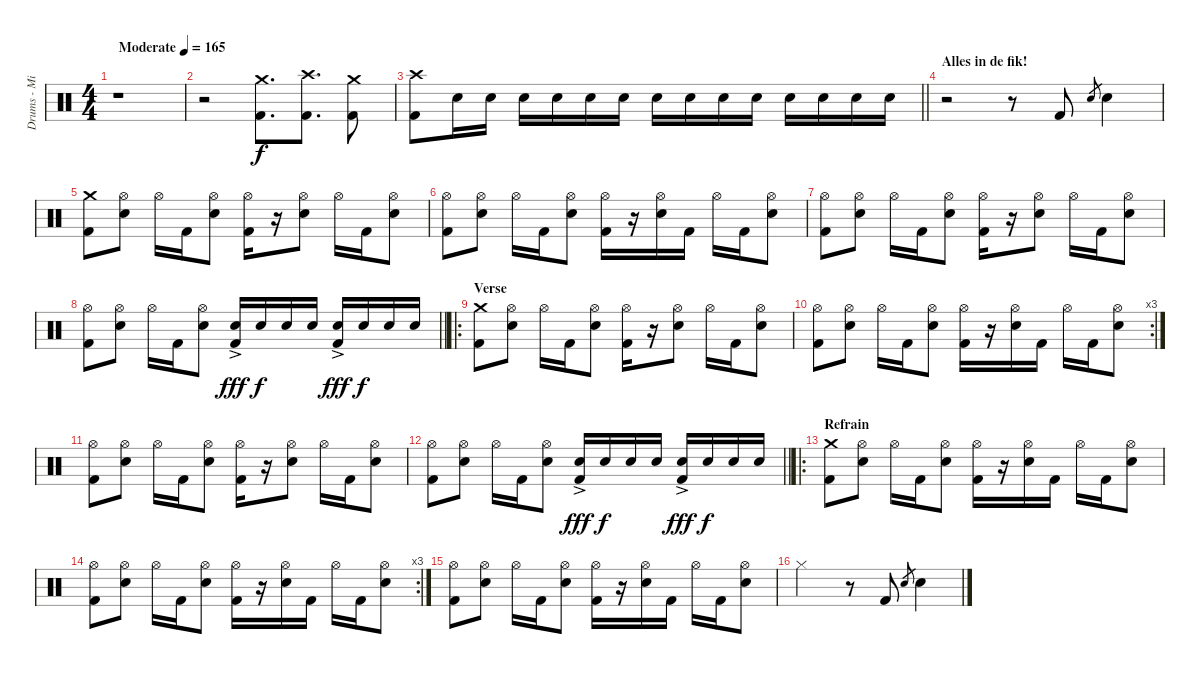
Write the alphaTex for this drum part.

\track ("Drums - Ming" "Drums - Mi") {instrument percussion}
\staff {score}
\articulation defaults
\ts (4 4)
\tempo (165 "Moderate")
\clef neutral
\ks c
r.1{dy f} |
r.2 ("Crash medium (hit)" "Kick (hit) 2").8{d} ("Crash high (hit)" "Kick (hit) 2").8{d} ("Crash medium (hit)" "Kick (hit) 2").8 |
\barLineRight lightlight
("Crash high (hit)" "Kick (hit) 2").8 "Electric Snare (hit)".16 "Electric Snare (hit)".16 "Electric Snare (hit)".16 "Electric Snare (hit)".16 "Electric Snare (hit)".16 "Electric Snare (hit)".16 "Electric Snare (hit)".16 "Electric Snare (hit)".16 "Electric Snare (hit)".16 "Electric Snare (hit)".16 "Electric Snare (hit)".16 "Electric Snare (hit)".16 "Electric Snare (hit)".16 "Electric Snare (hit)".16 |
\section ("" "Alles in de fik!")
r.2 r.8 "Kick (hit) 2".8 "Electric Snare (hit)"{h}.8{gr} "Electric Snare (hit)".4 |
("Crash medium (hit)" "Kick (hit) 2").8 ("Hi-Hat (open)" "Electric Snare (hit)").8 "Hi-Hat (open)".16 "Kick (hit) 2".16 ("Hi-Hat (open)" "Electric Snare (hit)").8 ("Hi-Hat (open)" "Kick (hit) 2").16 r.16 ("Hi-Hat (open)" "Electric Snare (hit)").8 "Hi-Hat (open)".16 "Kick (hit) 2".16 ("Hi-Hat (open)" "Electric Snare (hit)").8 |
("Hi-Hat (open)" "Kick (hit) 2").8 ("Hi-Hat (open)" "Electric Snare (hit)").8 "Hi-Hat (open)".16 "Kick (hit) 2".16 ("Hi-Hat (open)" "Electric Snare (hit)").8 ("Hi-Hat (open)" "Kick (hit) 2").16 r.16 ("Hi-Hat (open)" "Electric Snare (hit)").16 "Kick (hit) 2".16 "Hi-Hat (open)".16 "Kick (hit) 2".16 ("Hi-Hat (open)" "Electric Snare (hit)").8 |
("Hi-Hat (open)" "Kick (hit) 2").8 ("Hi-Hat (open)" "Electric Snare (hit)").8 "Hi-Hat (open)".16 "Kick (hit) 2".16 ("Hi-Hat (open)" "Electric Snare (hit)").8 ("Hi-Hat (open)" "Kick (hit) 2").16 r.16 ("Hi-Hat (open)" "Electric Snare (hit)").8 "Hi-Hat (open)".16 "Kick (hit) 2".16 ("Hi-Hat (open)" "Electric Snare (hit)").8 |
\barLineRight lightlight
("Hi-Hat (open)" "Kick (hit) 2").8 ("Hi-Hat (open)" "Electric Snare (hit)").8 "Hi-Hat (open)".16 "Kick (hit) 2".16 ("Hi-Hat (open)" "Electric Snare (hit)").8 ("Electric Snare (hit)"{ac} "Kick (hit) 2").16{dy fff} "Electric Snare (hit)".16{dy f} "Electric Snare (hit)".16 "Electric Snare (hit)".16 ("Electric Snare (hit)"{ac} "Kick (hit) 2").16{dy fff} "Electric Snare (hit)".16{dy f} "Electric Snare (hit)".16 "Electric Snare (hit)".16 |
\ro
\section ("" "Verse")
("Crash medium (hit)" "Kick (hit) 2").8 ("Hi-Hat (open)" "Electric Snare (hit)").8 "Hi-Hat (open)".16 "Kick (hit) 2".16 ("Hi-Hat (open)" "Electric Snare (hit)").8 ("Hi-Hat (open)" "Kick (hit) 2").16 r.16 ("Hi-Hat (open)" "Electric Snare (hit)").8 "Hi-Hat (open)".16 "Kick (hit) 2".16 ("Hi-Hat (open)" "Electric Snare (hit)").8 |
\rc 3
("Hi-Hat (open)" "Kick (hit) 2").8 ("Hi-Hat (open)" "Electric Snare (hit)").8 "Hi-Hat (open)".16 "Kick (hit) 2".16 ("Hi-Hat (open)" "Electric Snare (hit)").8 ("Hi-Hat (open)" "Kick (hit) 2").16 r.16 ("Hi-Hat (open)" "Electric Snare (hit)").16 "Kick (hit) 2".16 "Hi-Hat (open)".16 "Kick (hit) 2".16 ("Hi-Hat (open)" "Electric Snare (hit)").8 |
("Hi-Hat (open)" "Kick (hit) 2").8 ("Hi-Hat (open)" "Electric Snare (hit)").8 "Hi-Hat (open)".16 "Kick (hit) 2".16 ("Hi-Hat (open)" "Electric Snare (hit)").8 ("Hi-Hat (open)" "Kick (hit) 2").16 r.16 ("Hi-Hat (open)" "Electric Snare (hit)").8 "Hi-Hat (open)".16 "Kick (hit) 2".16 ("Hi-Hat (open)" "Electric Snare (hit)").8 |
\barLineRight lightlight
("Hi-Hat (open)" "Kick (hit) 2").8 ("Hi-Hat (open)" "Electric Snare (hit)").8 "Hi-Hat (open)".16 "Kick (hit) 2".16 ("Hi-Hat (open)" "Electric Snare (hit)").8 ("Electric Snare (hit)"{ac} "Kick (hit) 2").16{dy fff} "Electric Snare (hit)".16{dy f} "Electric Snare (hit)".16 "Electric Snare (hit)".16 ("Electric Snare (hit)"{ac} "Kick (hit) 2").16{dy fff} "Electric Snare (hit)".16{dy f} "Electric Snare (hit)".16 "Electric Snare (hit)".16 |
\ro
\section ("" "Refrain")
("Crash medium (hit)" "Kick (hit) 2").8 ("Hi-Hat (open)" "Electric Snare (hit)").8 "Hi-Hat (open)".16 "Kick (hit) 2".16 ("Hi-Hat (open)" "Electric Snare (hit)").8 ("Hi-Hat (open)" "Kick (hit) 2").16 r.16 ("Hi-Hat (open)" "Electric Snare (hit)").16 "Kick (hit) 2".16 "Hi-Hat (open)".16 "Kick (hit) 2".16 ("Hi-Hat (open)" "Electric Snare (hit)").8 |
\rc 3
("Hi-Hat (open)" "Kick (hit) 2").8 ("Hi-Hat (open)" "Electric Snare (hit)").8 "Hi-Hat (open)".16 "Kick (hit) 2".16 ("Hi-Hat (open)" "Electric Snare (hit)").8 ("Hi-Hat (open)" "Kick (hit) 2").16 r.16 ("Hi-Hat (open)" "Electric Snare (hit)").16 "Kick (hit) 2".16 "Hi-Hat (open)".16 "Kick (hit) 2".16 ("Hi-Hat (open)" "Electric Snare (hit)").8 |
("Hi-Hat (open)" "Kick (hit) 2").8 ("Hi-Hat (open)" "Electric Snare (hit)").8 "Hi-Hat (open)".16 "Kick (hit) 2".16 ("Hi-Hat (open)" "Electric Snare (hit)").8 ("Hi-Hat (open)" "Kick (hit) 2").16 r.16 ("Hi-Hat (open)" "Electric Snare (hit)").16 "Kick (hit) 2".16 "Hi-Hat (open)".16 "Kick (hit) 2".16 ("Hi-Hat (open)" "Electric Snare (hit)").8 |
"Hi-Hat (closed)".2 r.8 "Kick (hit) 2".8 "Electric Snare (hit)"{h}.8{gr} "Electric Snare (hit)".4
